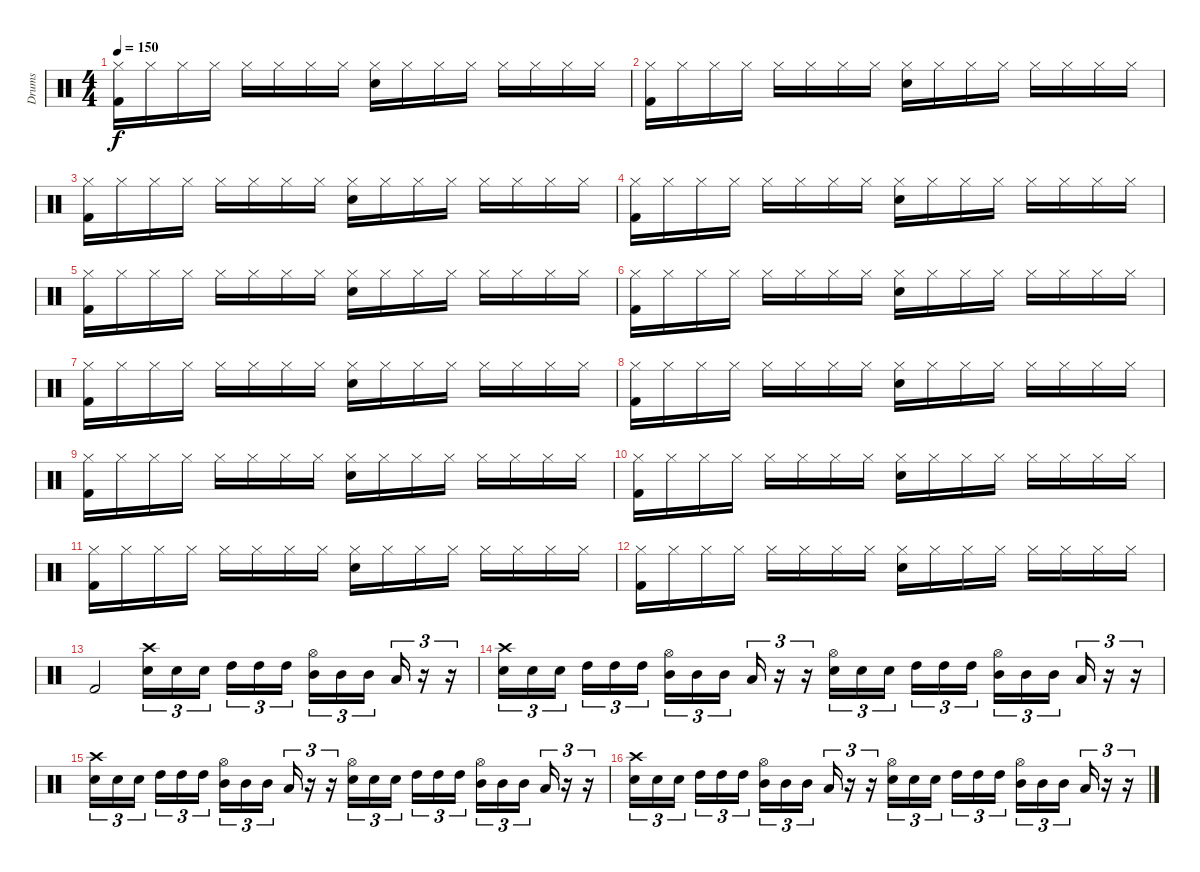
\track ("Drums" "Drums") {instrument percussion}
\staff {score}
\articulation defaults
\ts (4 4)
\tempo 150
\clef neutral
\ks c
("Hi-Hat (closed)" "Kick (hit) 2").16{dy f volume 11} "Hi-Hat (closed)".16 "Hi-Hat (closed)".16 "Hi-Hat (closed)".16 "Hi-Hat (closed)".16 "Hi-Hat (closed)".16 "Hi-Hat (closed)".16 "Hi-Hat (closed)".16 ("Hi-Hat (closed)" "Snare (hit) 2").16 "Hi-Hat (closed)".16 "Hi-Hat (closed)".16 "Hi-Hat (closed)".16 "Hi-Hat (closed)".16 "Hi-Hat (closed)".16 "Hi-Hat (closed)".16 "Hi-Hat (closed)".16 |
("Hi-Hat (closed)" "Kick (hit) 2").16 "Hi-Hat (closed)".16 "Hi-Hat (closed)".16 "Hi-Hat (closed)".16 "Hi-Hat (closed)".16 "Hi-Hat (closed)".16 "Hi-Hat (closed)".16 "Hi-Hat (closed)".16 ("Hi-Hat (closed)" "Snare (hit) 2").16 "Hi-Hat (closed)".16 "Hi-Hat (closed)".16 "Hi-Hat (closed)".16 "Hi-Hat (closed)".16 "Hi-Hat (closed)".16 "Hi-Hat (closed)".16 "Hi-Hat (closed)".16 |
("Hi-Hat (closed)" "Kick (hit) 2").16 "Hi-Hat (closed)".16 "Hi-Hat (closed)".16 "Hi-Hat (closed)".16 "Hi-Hat (closed)".16 "Hi-Hat (closed)".16 "Hi-Hat (closed)".16 "Hi-Hat (closed)".16 ("Hi-Hat (closed)" "Snare (hit) 2").16 "Hi-Hat (closed)".16 "Hi-Hat (closed)".16 "Hi-Hat (closed)".16 "Hi-Hat (closed)".16 "Hi-Hat (closed)".16 "Hi-Hat (closed)".16 "Hi-Hat (closed)".16 |
("Hi-Hat (closed)" "Kick (hit) 2").16 "Hi-Hat (closed)".16 "Hi-Hat (closed)".16 "Hi-Hat (closed)".16 "Hi-Hat (closed)".16 "Hi-Hat (closed)".16 "Hi-Hat (closed)".16 "Hi-Hat (closed)".16 ("Hi-Hat (closed)" "Snare (hit) 2").16 "Hi-Hat (closed)".16 "Hi-Hat (closed)".16 "Hi-Hat (closed)".16 "Hi-Hat (closed)".16 "Hi-Hat (closed)".16 "Hi-Hat (closed)".16 "Hi-Hat (closed)".16 |
("Hi-Hat (closed)" "Kick (hit) 2").16 "Hi-Hat (closed)".16 "Hi-Hat (closed)".16 "Hi-Hat (closed)".16 "Hi-Hat (closed)".16 "Hi-Hat (closed)".16 "Hi-Hat (closed)".16 "Hi-Hat (closed)".16 ("Hi-Hat (closed)" "Snare (hit) 2").16 "Hi-Hat (closed)".16 "Hi-Hat (closed)".16 "Hi-Hat (closed)".16 "Hi-Hat (closed)".16 "Hi-Hat (closed)".16 "Hi-Hat (closed)".16 "Hi-Hat (closed)".16 |
("Hi-Hat (closed)" "Kick (hit) 2").16 "Hi-Hat (closed)".16 "Hi-Hat (closed)".16 "Hi-Hat (closed)".16 "Hi-Hat (closed)".16 "Hi-Hat (closed)".16 "Hi-Hat (closed)".16 "Hi-Hat (closed)".16 ("Hi-Hat (closed)" "Snare (hit) 2").16 "Hi-Hat (closed)".16 "Hi-Hat (closed)".16 "Hi-Hat (closed)".16 "Hi-Hat (closed)".16 "Hi-Hat (closed)".16 "Hi-Hat (closed)".16 "Hi-Hat (closed)".16 |
("Hi-Hat (closed)" "Kick (hit) 2").16 "Hi-Hat (closed)".16 "Hi-Hat (closed)".16 "Hi-Hat (closed)".16 "Hi-Hat (closed)".16 "Hi-Hat (closed)".16 "Hi-Hat (closed)".16 "Hi-Hat (closed)".16 ("Hi-Hat (closed)" "Snare (hit) 2").16 "Hi-Hat (closed)".16 "Hi-Hat (closed)".16 "Hi-Hat (closed)".16 "Hi-Hat (closed)".16 "Hi-Hat (closed)".16 "Hi-Hat (closed)".16 "Hi-Hat (closed)".16 |
("Hi-Hat (closed)" "Kick (hit) 2").16 "Hi-Hat (closed)".16 "Hi-Hat (closed)".16 "Hi-Hat (closed)".16 "Hi-Hat (closed)".16 "Hi-Hat (closed)".16 "Hi-Hat (closed)".16 "Hi-Hat (closed)".16 ("Hi-Hat (closed)" "Snare (hit) 2").16 "Hi-Hat (closed)".16 "Hi-Hat (closed)".16 "Hi-Hat (closed)".16 "Hi-Hat (closed)".16 "Hi-Hat (closed)".16 "Hi-Hat (closed)".16 "Hi-Hat (closed)".16 |
("Hi-Hat (closed)" "Kick (hit) 2").16 "Hi-Hat (closed)".16 "Hi-Hat (closed)".16 "Hi-Hat (closed)".16 "Hi-Hat (closed)".16 "Hi-Hat (closed)".16 "Hi-Hat (closed)".16 "Hi-Hat (closed)".16 ("Hi-Hat (closed)" "Snare (hit) 2").16 "Hi-Hat (closed)".16 "Hi-Hat (closed)".16 "Hi-Hat (closed)".16 "Hi-Hat (closed)".16 "Hi-Hat (closed)".16 "Hi-Hat (closed)".16 "Hi-Hat (closed)".16 |
("Hi-Hat (closed)" "Kick (hit) 2").16 "Hi-Hat (closed)".16 "Hi-Hat (closed)".16 "Hi-Hat (closed)".16 "Hi-Hat (closed)".16 "Hi-Hat (closed)".16 "Hi-Hat (closed)".16 "Hi-Hat (closed)".16 ("Hi-Hat (closed)" "Snare (hit) 2").16 "Hi-Hat (closed)".16 "Hi-Hat (closed)".16 "Hi-Hat (closed)".16 "Hi-Hat (closed)".16 "Hi-Hat (closed)".16 "Hi-Hat (closed)".16 "Hi-Hat (closed)".16 |
("Hi-Hat (closed)" "Kick (hit) 2").16 "Hi-Hat (closed)".16 "Hi-Hat (closed)".16 "Hi-Hat (closed)".16 "Hi-Hat (closed)".16 "Hi-Hat (closed)".16 "Hi-Hat (closed)".16 "Hi-Hat (closed)".16 ("Hi-Hat (closed)" "Snare (hit) 2").16 "Hi-Hat (closed)".16 "Hi-Hat (closed)".16 "Hi-Hat (closed)".16 "Hi-Hat (closed)".16 "Hi-Hat (closed)".16 "Hi-Hat (closed)".16 "Hi-Hat (closed)".16 |
("Hi-Hat (closed)" "Kick (hit) 2").16 "Hi-Hat (closed)".16 "Hi-Hat (closed)".16 "Hi-Hat (closed)".16 "Hi-Hat (closed)".16 "Hi-Hat (closed)".16 "Hi-Hat (closed)".16 "Hi-Hat (closed)".16 ("Hi-Hat (closed)" "Snare (hit) 2").16 "Hi-Hat (closed)".16 "Hi-Hat (closed)".16 "Hi-Hat (closed)".16 "Hi-Hat (closed)".16 "Hi-Hat (closed)".16 "Hi-Hat (closed)".16 "Hi-Hat (closed)".16 |
"Kick (hit) 2".2 ("Crash high (hit)" "Snare (hit) 2").16{tu (3 2)} "Snare (hit) 2".16{tu (3 2)} "Snare (hit) 2".16{tu (3 2)} "High Tom (hit)".16{tu (3 2)} "High Tom (hit)".16{tu (3 2)} "High Tom (hit)".16{tu (3 2)} ("Hi-Hat (open)" "Mid Tom (hit)").16{tu (3 2)} "Mid Tom (hit)".16{tu (3 2)} "Mid Tom (hit)".16{tu (3 2)} "Low Tom (hit)".16{tu (3 2)} r.16{tu (3 2)} r.16{tu (3 2)} |
("Crash high (hit)" "Snare (hit) 2").16{tu (3 2)} "Snare (hit) 2".16{tu (3 2)} "Snare (hit) 2".16{tu (3 2)} "High Tom (hit)".16{tu (3 2)} "High Tom (hit)".16{tu (3 2)} "High Tom (hit)".16{tu (3 2)} ("Hi-Hat (open)" "Mid Tom (hit)").16{tu (3 2)} "Mid Tom (hit)".16{tu (3 2)} "Mid Tom (hit)".16{tu (3 2)} "Low Tom (hit)".16{tu (3 2)} r.16{tu (3 2)} r.16{tu (3 2)} ("Hi-Hat (open)" "Snare (hit) 2").16{tu (3 2)} "Snare (hit) 2".16{tu (3 2)} "Snare (hit) 2".16{tu (3 2)} "High Tom (hit)".16{tu (3 2)} "High Tom (hit)".16{tu (3 2)} "High Tom (hit)".16{tu (3 2)} ("Hi-Hat (open)" "Mid Tom (hit)").16{tu (3 2)} "Mid Tom (hit)".16{tu (3 2)} "Mid Tom (hit)".16{tu (3 2)} "Low Tom (hit)".16{tu (3 2)} r.16{tu (3 2)} r.16{tu (3 2)} |
("Crash high (hit)" "Snare (hit) 2").16{tu (3 2)} "Snare (hit) 2".16{tu (3 2)} "Snare (hit) 2".16{tu (3 2)} "High Tom (hit)".16{tu (3 2)} "High Tom (hit)".16{tu (3 2)} "High Tom (hit)".16{tu (3 2)} ("Hi-Hat (open)" "Mid Tom (hit)").16{tu (3 2)} "Mid Tom (hit)".16{tu (3 2)} "Mid Tom (hit)".16{tu (3 2)} "Low Tom (hit)".16{tu (3 2)} r.16{tu (3 2)} r.16{tu (3 2)} ("Hi-Hat (open)" "Snare (hit) 2").16{tu (3 2)} "Snare (hit) 2".16{tu (3 2)} "Snare (hit) 2".16{tu (3 2)} "High Tom (hit)".16{tu (3 2)} "High Tom (hit)".16{tu (3 2)} "High Tom (hit)".16{tu (3 2)} ("Hi-Hat (open)" "Mid Tom (hit)").16{tu (3 2)} "Mid Tom (hit)".16{tu (3 2)} "Mid Tom (hit)".16{tu (3 2)} "Low Tom (hit)".16{tu (3 2)} r.16{tu (3 2)} r.16{tu (3 2)} |
("Crash high (hit)" "Snare (hit) 2").16{tu (3 2)} "Snare (hit) 2".16{tu (3 2)} "Snare (hit) 2".16{tu (3 2)} "High Tom (hit)".16{tu (3 2)} "High Tom (hit)".16{tu (3 2)} "High Tom (hit)".16{tu (3 2)} ("Hi-Hat (open)" "Mid Tom (hit)").16{tu (3 2)} "Mid Tom (hit)".16{tu (3 2)} "Mid Tom (hit)".16{tu (3 2)} "Low Tom (hit)".16{tu (3 2)} r.16{tu (3 2)} r.16{tu (3 2)} ("Hi-Hat (open)" "Snare (hit) 2").16{tu (3 2)} "Snare (hit) 2".16{tu (3 2)} "Snare (hit) 2".16{tu (3 2)} "High Tom (hit)".16{tu (3 2)} "High Tom (hit)".16{tu (3 2)} "High Tom (hit)".16{tu (3 2)} ("Hi-Hat (open)" "Mid Tom (hit)").16{tu (3 2)} "Mid Tom (hit)".16{tu (3 2)} "Mid Tom (hit)".16{tu (3 2)} "Low Tom (hit)".16{tu (3 2)} r.16{tu (3 2)} r.16{tu (3 2)}
